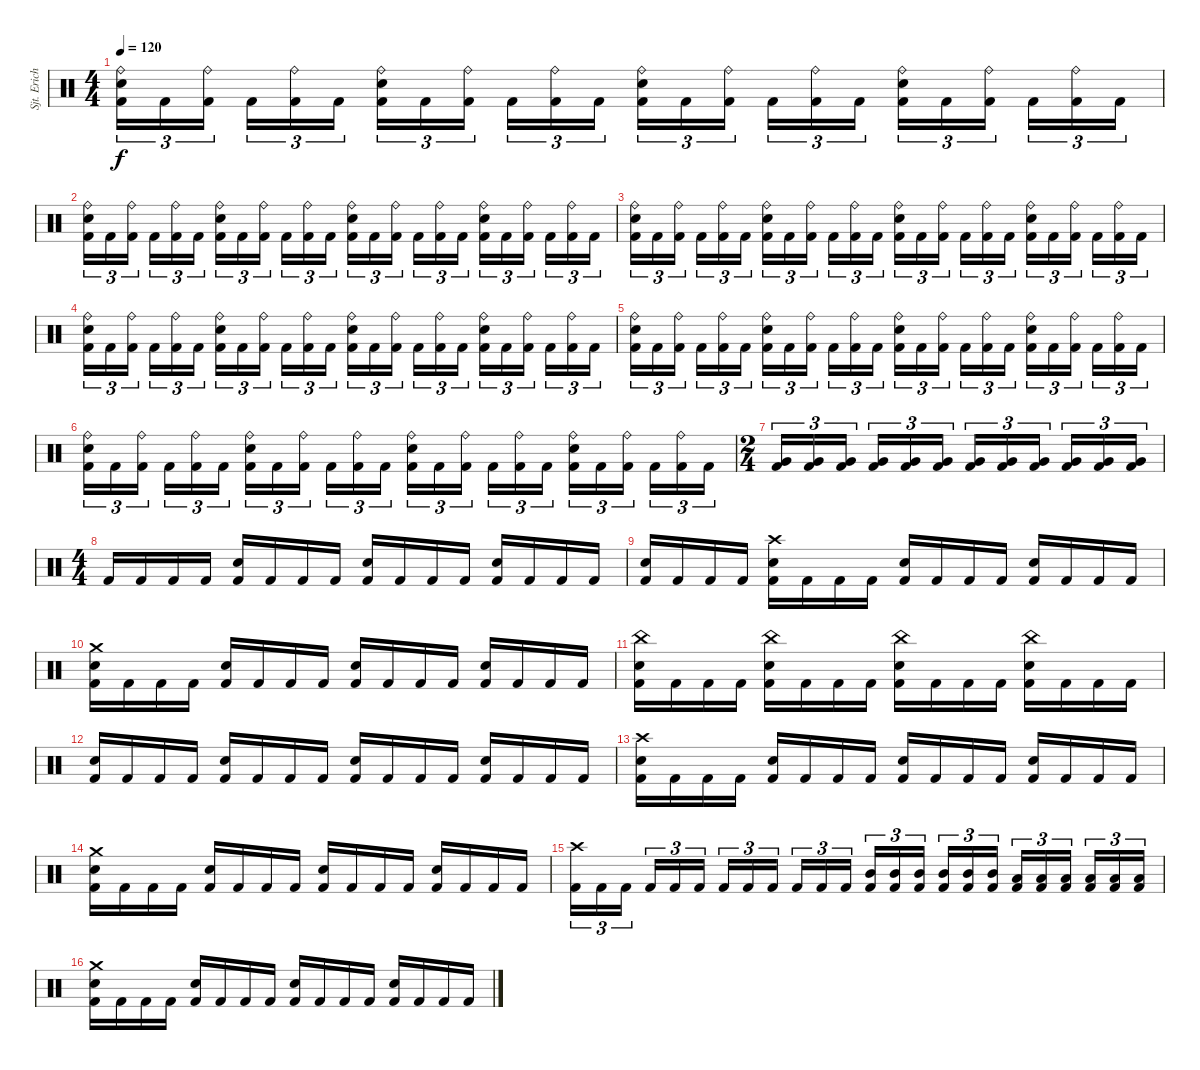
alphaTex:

\track ("Sjt. Erichsen" "Sjt. Erich") {instrument percussion}
\staff {score}
\articulation defaults
\ts (4 4)
\tempo 120
\clef neutral
\ks c
("Ride (bell)" "Electric Snare (hit)" "Kick (hit) 2").16{tu (3 2) dy f} "Kick (hit) 2".16{tu (3 2)} ("Ride (bell)" "Kick (hit) 2").16{tu (3 2)} "Kick (hit) 2".16{tu (3 2)} ("Ride (bell)" "Kick (hit) 2").16{tu (3 2)} "Kick (hit) 2".16{tu (3 2)} ("Ride (bell)" "Electric Snare (hit)" "Kick (hit) 2").16{tu (3 2)} "Kick (hit) 2".16{tu (3 2)} ("Ride (bell)" "Kick (hit) 2").16{tu (3 2)} "Kick (hit) 2".16{tu (3 2)} ("Ride (bell)" "Kick (hit) 2").16{tu (3 2)} "Kick (hit) 2".16{tu (3 2)} ("Ride (bell)" "Electric Snare (hit)" "Kick (hit) 2").16{tu (3 2)} "Kick (hit) 2".16{tu (3 2)} ("Ride (bell)" "Kick (hit) 2").16{tu (3 2)} "Kick (hit) 2".16{tu (3 2)} ("Ride (bell)" "Kick (hit) 2").16{tu (3 2)} "Kick (hit) 2".16{tu (3 2)} ("Ride (bell)" "Electric Snare (hit)" "Kick (hit) 2").16{tu (3 2)} "Kick (hit) 2".16{tu (3 2)} ("Ride (bell)" "Kick (hit) 2").16{tu (3 2)} "Kick (hit) 2".16{tu (3 2)} ("Ride (bell)" "Kick (hit) 2").16{tu (3 2)} "Kick (hit) 2".16{tu (3 2)} |
("Ride (bell)" "Electric Snare (hit)" "Kick (hit) 2").16{tu (3 2)} "Kick (hit) 2".16{tu (3 2)} ("Ride (bell)" "Kick (hit) 2").16{tu (3 2)} "Kick (hit) 2".16{tu (3 2)} ("Ride (bell)" "Kick (hit) 2").16{tu (3 2)} "Kick (hit) 2".16{tu (3 2)} ("Ride (bell)" "Electric Snare (hit)" "Kick (hit) 2").16{tu (3 2)} "Kick (hit) 2".16{tu (3 2)} ("Ride (bell)" "Kick (hit) 2").16{tu (3 2)} "Kick (hit) 2".16{tu (3 2)} ("Ride (bell)" "Kick (hit) 2").16{tu (3 2)} "Kick (hit) 2".16{tu (3 2)} ("Ride (bell)" "Electric Snare (hit)" "Kick (hit) 2").16{tu (3 2)} "Kick (hit) 2".16{tu (3 2)} ("Ride (bell)" "Kick (hit) 2").16{tu (3 2)} "Kick (hit) 2".16{tu (3 2)} ("Ride (bell)" "Kick (hit) 2").16{tu (3 2)} "Kick (hit) 2".16{tu (3 2)} ("Ride (bell)" "Electric Snare (hit)" "Kick (hit) 2").16{tu (3 2)} "Kick (hit) 2".16{tu (3 2)} ("Ride (bell)" "Kick (hit) 2").16{tu (3 2)} "Kick (hit) 2".16{tu (3 2)} ("Ride (bell)" "Kick (hit) 2").16{tu (3 2)} "Kick (hit) 2".16{tu (3 2)} |
("Ride (bell)" "Electric Snare (hit)" "Kick (hit) 2").16{tu (3 2)} "Kick (hit) 2".16{tu (3 2)} ("Ride (bell)" "Kick (hit) 2").16{tu (3 2)} "Kick (hit) 2".16{tu (3 2)} ("Ride (bell)" "Kick (hit) 2").16{tu (3 2)} "Kick (hit) 2".16{tu (3 2)} ("Ride (bell)" "Electric Snare (hit)" "Kick (hit) 2").16{tu (3 2)} "Kick (hit) 2".16{tu (3 2)} ("Ride (bell)" "Kick (hit) 2").16{tu (3 2)} "Kick (hit) 2".16{tu (3 2)} ("Ride (bell)" "Kick (hit) 2").16{tu (3 2)} "Kick (hit) 2".16{tu (3 2)} ("Ride (bell)" "Electric Snare (hit)" "Kick (hit) 2").16{tu (3 2)} "Kick (hit) 2".16{tu (3 2)} ("Ride (bell)" "Kick (hit) 2").16{tu (3 2)} "Kick (hit) 2".16{tu (3 2)} ("Ride (bell)" "Kick (hit) 2").16{tu (3 2)} "Kick (hit) 2".16{tu (3 2)} ("Ride (bell)" "Electric Snare (hit)" "Kick (hit) 2").16{tu (3 2)} "Kick (hit) 2".16{tu (3 2)} ("Ride (bell)" "Kick (hit) 2").16{tu (3 2)} "Kick (hit) 2".16{tu (3 2)} ("Ride (bell)" "Kick (hit) 2").16{tu (3 2)} "Kick (hit) 2".16{tu (3 2)} |
("Ride (bell)" "Electric Snare (hit)" "Kick (hit) 2").16{tu (3 2)} "Kick (hit) 2".16{tu (3 2)} ("Ride (bell)" "Kick (hit) 2").16{tu (3 2)} "Kick (hit) 2".16{tu (3 2)} ("Ride (bell)" "Kick (hit) 2").16{tu (3 2)} "Kick (hit) 2".16{tu (3 2)} ("Ride (bell)" "Electric Snare (hit)" "Kick (hit) 2").16{tu (3 2)} "Kick (hit) 2".16{tu (3 2)} ("Ride (bell)" "Kick (hit) 2").16{tu (3 2)} "Kick (hit) 2".16{tu (3 2)} ("Ride (bell)" "Kick (hit) 2").16{tu (3 2)} "Kick (hit) 2".16{tu (3 2)} ("Ride (bell)" "Electric Snare (hit)" "Kick (hit) 2").16{tu (3 2)} "Kick (hit) 2".16{tu (3 2)} ("Ride (bell)" "Kick (hit) 2").16{tu (3 2)} "Kick (hit) 2".16{tu (3 2)} ("Ride (bell)" "Kick (hit) 2").16{tu (3 2)} "Kick (hit) 2".16{tu (3 2)} ("Ride (bell)" "Electric Snare (hit)" "Kick (hit) 2").16{tu (3 2)} "Kick (hit) 2".16{tu (3 2)} ("Ride (bell)" "Kick (hit) 2").16{tu (3 2)} "Kick (hit) 2".16{tu (3 2)} ("Ride (bell)" "Kick (hit) 2").16{tu (3 2)} "Kick (hit) 2".16{tu (3 2)} |
("Ride (bell)" "Electric Snare (hit)" "Kick (hit) 2").16{tu (3 2)} "Kick (hit) 2".16{tu (3 2)} ("Ride (bell)" "Kick (hit) 2").16{tu (3 2)} "Kick (hit) 2".16{tu (3 2)} ("Ride (bell)" "Kick (hit) 2").16{tu (3 2)} "Kick (hit) 2".16{tu (3 2)} ("Ride (bell)" "Electric Snare (hit)" "Kick (hit) 2").16{tu (3 2)} "Kick (hit) 2".16{tu (3 2)} ("Ride (bell)" "Kick (hit) 2").16{tu (3 2)} "Kick (hit) 2".16{tu (3 2)} ("Ride (bell)" "Kick (hit) 2").16{tu (3 2)} "Kick (hit) 2".16{tu (3 2)} ("Ride (bell)" "Electric Snare (hit)" "Kick (hit) 2").16{tu (3 2)} "Kick (hit) 2".16{tu (3 2)} ("Ride (bell)" "Kick (hit) 2").16{tu (3 2)} "Kick (hit) 2".16{tu (3 2)} ("Ride (bell)" "Kick (hit) 2").16{tu (3 2)} "Kick (hit) 2".16{tu (3 2)} ("Ride (bell)" "Electric Snare (hit)" "Kick (hit) 2").16{tu (3 2)} "Kick (hit) 2".16{tu (3 2)} ("Ride (bell)" "Kick (hit) 2").16{tu (3 2)} "Kick (hit) 2".16{tu (3 2)} ("Ride (bell)" "Kick (hit) 2").16{tu (3 2)} "Kick (hit) 2".16{tu (3 2)} |
("Ride (bell)" "Electric Snare (hit)" "Kick (hit) 2").16{tu (3 2)} "Kick (hit) 2".16{tu (3 2)} ("Ride (bell)" "Kick (hit) 2").16{tu (3 2)} "Kick (hit) 2".16{tu (3 2)} ("Ride (bell)" "Kick (hit) 2").16{tu (3 2)} "Kick (hit) 2".16{tu (3 2)} ("Ride (bell)" "Electric Snare (hit)" "Kick (hit) 2").16{tu (3 2)} "Kick (hit) 2".16{tu (3 2)} ("Ride (bell)" "Kick (hit) 2").16{tu (3 2)} "Kick (hit) 2".16{tu (3 2)} ("Ride (bell)" "Kick (hit) 2").16{tu (3 2)} "Kick (hit) 2".16{tu (3 2)} ("Ride (bell)" "Electric Snare (hit)" "Kick (hit) 2").16{tu (3 2)} "Kick (hit) 2".16{tu (3 2)} ("Ride (bell)" "Kick (hit) 2").16{tu (3 2)} "Kick (hit) 2".16{tu (3 2)} ("Ride (bell)" "Kick (hit) 2").16{tu (3 2)} "Kick (hit) 2".16{tu (3 2)} ("Ride (bell)" "Electric Snare (hit)" "Kick (hit) 2").16{tu (3 2)} "Kick (hit) 2".16{tu (3 2)} ("Ride (bell)" "Kick (hit) 2").16{tu (3 2)} "Kick (hit) 2".16{tu (3 2)} ("Ride (bell)" "Kick (hit) 2").16{tu (3 2)} "Kick (hit) 2".16{tu (3 2)} |
\ts (2 4)
("Very Low Tom (hit)" "Kick (hit) 2").16{tu (3 2)} ("Very Low Tom (hit)" "Kick (hit) 2").16{tu (3 2)} ("Very Low Tom (hit)" "Kick (hit) 2").16{tu (3 2)} ("Very Low Tom (hit)" "Kick (hit) 2").16{tu (3 2)} ("Very Low Tom (hit)" "Kick (hit) 2").16{tu (3 2)} ("Very Low Tom (hit)" "Kick (hit) 2").16{tu (3 2)} ("Very Low Tom (hit)" "Kick (hit) 2").16{tu (3 2)} ("Very Low Tom (hit)" "Kick (hit) 2").16{tu (3 2)} ("Very Low Tom (hit)" "Kick (hit) 2").16{tu (3 2)} ("Very Low Tom (hit)" "Kick (hit) 2").16{tu (3 2)} ("Very Low Tom (hit)" "Kick (hit) 2").16{tu (3 2)} ("Very Low Tom (hit)" "Kick (hit) 2").16{tu (3 2)} |
\ts (4 4)
"Kick (hit) 2".16 "Kick (hit) 2".16 "Kick (hit) 2".16 "Kick (hit) 2".16 ("Electric Snare (hit)" "Kick (hit) 2").16 "Kick (hit) 2".16 "Kick (hit) 2".16 "Kick (hit) 2".16 ("Electric Snare (hit)" "Kick (hit) 2").16 "Kick (hit) 2".16 "Kick (hit) 2".16 "Kick (hit) 2".16 ("Electric Snare (hit)" "Kick (hit) 2").16 "Kick (hit) 2".16 "Kick (hit) 2".16 "Kick (hit) 2".16 |
("Electric Snare (hit)" "Kick (hit) 2").16 "Kick (hit) 2".16 "Kick (hit) 2".16 "Kick (hit) 2".16 ("Crash high (hit)" "Electric Snare (hit)" "Kick (hit) 2").16 "Kick (hit) 2".16 "Kick (hit) 2".16 "Kick (hit) 2".16 ("Electric Snare (hit)" "Kick (hit) 2").16 "Kick (hit) 2".16 "Kick (hit) 2".16 "Kick (hit) 2".16 ("Electric Snare (hit)" "Kick (hit) 2").16 "Kick (hit) 2".16 "Kick (hit) 2".16 "Kick (hit) 2".16 |
("Crash medium (hit)" "Electric Snare (hit)" "Kick (hit) 2").16 "Kick (hit) 2".16 "Kick (hit) 2".16 "Kick (hit) 2".16 ("Electric Snare (hit)" "Kick (hit) 2").16 "Kick (hit) 2".16 "Kick (hit) 2".16 "Kick (hit) 2".16 ("Electric Snare (hit)" "Kick (hit) 2").16 "Kick (hit) 2".16 "Kick (hit) 2".16 "Kick (hit) 2".16 ("Electric Snare (hit)" "Kick (hit) 2").16 "Kick (hit) 2".16 "Kick (hit) 2".16 "Kick (hit) 2".16 |
("China (hit)" "Electric Snare (hit)" "Kick (hit) 2").16 "Kick (hit) 2".16 "Kick (hit) 2".16 "Kick (hit) 2".16 ("China (hit)" "Electric Snare (hit)" "Kick (hit) 2").16 "Kick (hit) 2".16 "Kick (hit) 2".16 "Kick (hit) 2".16 ("China (hit)" "Electric Snare (hit)" "Kick (hit) 2").16 "Kick (hit) 2".16 "Kick (hit) 2".16 "Kick (hit) 2".16 ("China (hit)" "Electric Snare (hit)" "Kick (hit) 2").16 "Kick (hit) 2".16 "Kick (hit) 2".16 "Kick (hit) 2".16 |
("Electric Snare (hit)" "Kick (hit) 2").16 "Kick (hit) 2".16 "Kick (hit) 2".16 "Kick (hit) 2".16 ("Electric Snare (hit)" "Kick (hit) 2").16 "Kick (hit) 2".16 "Kick (hit) 2".16 "Kick (hit) 2".16 ("Electric Snare (hit)" "Kick (hit) 2").16 "Kick (hit) 2".16 "Kick (hit) 2".16 "Kick (hit) 2".16 ("Electric Snare (hit)" "Kick (hit) 2").16 "Kick (hit) 2".16 "Kick (hit) 2".16 "Kick (hit) 2".16 |
("Crash high (hit)" "Electric Snare (hit)" "Kick (hit) 2").16 "Kick (hit) 2".16 "Kick (hit) 2".16 "Kick (hit) 2".16 ("Electric Snare (hit)" "Kick (hit) 2").16 "Kick (hit) 2".16 "Kick (hit) 2".16 "Kick (hit) 2".16 ("Electric Snare (hit)" "Kick (hit) 2").16 "Kick (hit) 2".16 "Kick (hit) 2".16 "Kick (hit) 2".16 ("Electric Snare (hit)" "Kick (hit) 2").16 "Kick (hit) 2".16 "Kick (hit) 2".16 "Kick (hit) 2".16 |
("Crash medium (hit)" "Electric Snare (hit)" "Kick (hit) 2").16 "Kick (hit) 2".16 "Kick (hit) 2".16 "Kick (hit) 2".16 ("Electric Snare (hit)" "Kick (hit) 2").16 "Kick (hit) 2".16 "Kick (hit) 2".16 "Kick (hit) 2".16 ("Electric Snare (hit)" "Kick (hit) 2").16 "Kick (hit) 2".16 "Kick (hit) 2".16 "Kick (hit) 2".16 ("Electric Snare (hit)" "Kick (hit) 2").16 "Kick (hit) 2".16 "Kick (hit) 2".16 "Kick (hit) 2".16 |
("Crash high (hit)" "Kick (hit) 2").16{tu (3 2)} "Kick (hit) 2".16{tu (3 2)} "Kick (hit) 2".16{tu (3 2)} "Kick (hit) 2".16{tu (3 2)} "Kick (hit) 2".16{tu (3 2)} "Kick (hit) 2".16{tu (3 2)} "Kick (hit) 2".16{tu (3 2)} "Kick (hit) 2".16{tu (3 2)} "Kick (hit) 2".16{tu (3 2)} "Kick (hit) 2".16{tu (3 2)} "Kick (hit) 2".16{tu (3 2)} "Kick (hit) 2".16{tu (3 2)} ("Mid Tom (hit)" "Kick (hit) 2").16{tu (3 2)} ("Mid Tom (hit)" "Kick (hit) 2").16{tu (3 2)} ("Mid Tom (hit)" "Kick (hit) 2").16{tu (3 2)} ("Mid Tom (hit)" "Kick (hit) 2").16{tu (3 2)} ("Mid Tom (hit)" "Kick (hit) 2").16{tu (3 2)} ("Mid Tom (hit)" "Kick (hit) 2").16{tu (3 2)} ("Low Tom (hit)" "Kick (hit) 2").16{tu (3 2)} ("Low Tom (hit)" "Kick (hit) 2").16{tu (3 2)} ("Low Tom (hit)" "Kick (hit) 2").16{tu (3 2)} ("Low Tom (hit)" "Kick (hit) 2").16{tu (3 2)} ("Low Tom (hit)" "Kick (hit) 2").16{tu (3 2)} ("Low Tom (hit)" "Kick (hit) 2").16{tu (3 2)} |
("Crash medium (hit)" "Electric Snare (hit)" "Kick (hit) 2").16 "Kick (hit) 2".16 "Kick (hit) 2".16 "Kick (hit) 2".16 ("Electric Snare (hit)" "Kick (hit) 2").16 "Kick (hit) 2".16 "Kick (hit) 2".16 "Kick (hit) 2".16 ("Electric Snare (hit)" "Kick (hit) 2").16 "Kick (hit) 2".16 "Kick (hit) 2".16 "Kick (hit) 2".16 ("Electric Snare (hit)" "Kick (hit) 2").16 "Kick (hit) 2".16 "Kick (hit) 2".16 "Kick (hit) 2".16
